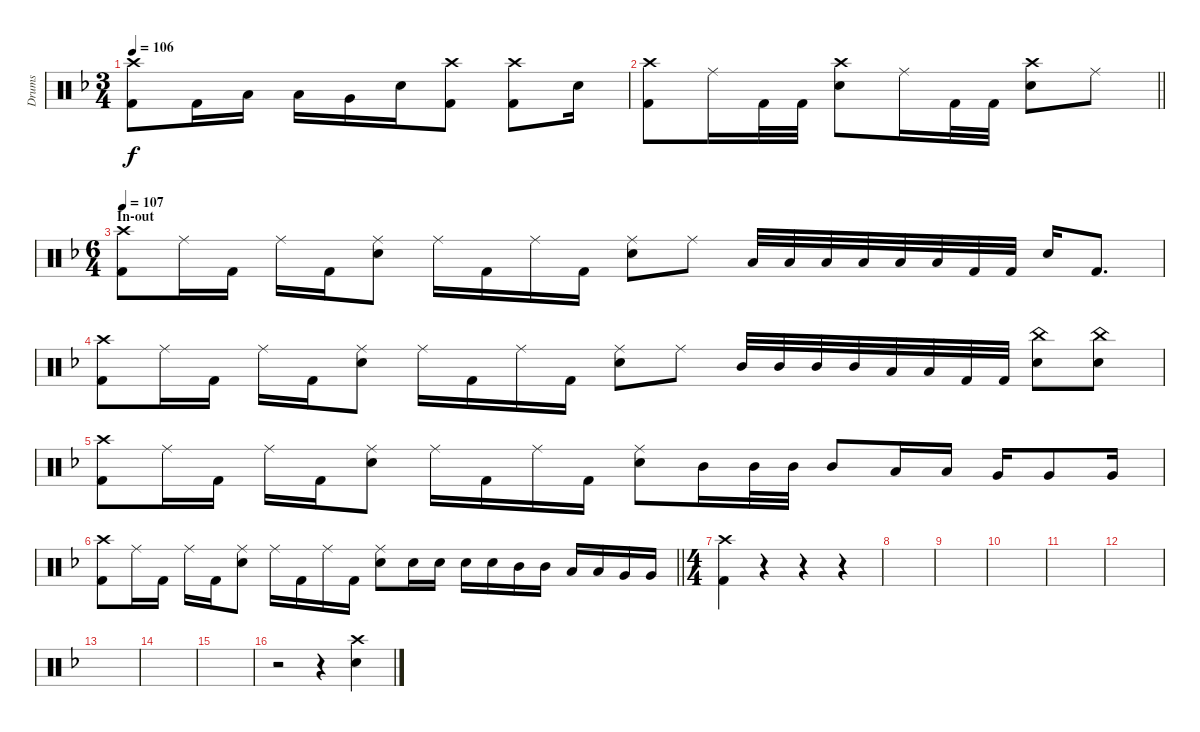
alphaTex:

\track ("Drums" "Drums") {instrument percussion}
\staff {score}
\articulation defaults
\ts (3 4)
\tempo 106
\clef neutral
\ks dminor
("Crash high (hit)" "Kick (hit) 2").8{dy f} "Kick (hit) 2".16 "Low Tom (hit)".16 "Low Tom (hit)".16 "Very Low Tom (hit)".16 "Snare (hit) 2".16 ("Crash high (hit)" "Kick (hit) 2").8 ("Crash high (hit)" "Kick (hit) 2").8 "Snare (hit) 2".16 |
\barLineRight lightlight
("Crash high (hit)" "Kick (hit) 2").8 "Ride (middle)".16 "Kick (hit) 2".32 "Kick (hit) 2".32 ("Crash high (hit)" "Snare (hit) 2").8 "Ride (middle)".16 "Kick (hit) 2".32 "Kick (hit) 2".32 ("Crash high (hit)" "Snare (hit) 2").8 "Ride (middle)".8 |
\ts (6 4)
\section ("" "In-out")
\tempo 107
("Crash high (hit)" "Kick (hit) 2").8 "Ride (middle)".16 "Kick (hit) 2".16 "Ride (middle)".16 "Kick (hit) 2".16 ("Ride (middle)" "Snare (hit) 2").8 "Ride (middle)".16 "Kick (hit) 2".16 "Ride (middle)".16 "Kick (hit) 2".16 ("Ride (middle)" "Snare (hit) 2").8 "Ride (middle)".8 "Low Tom (hit)".32 "Low Tom (hit)".32 "Low Tom (hit)".32 "Low Tom (hit)".32 "Low Tom (hit)".32 "Low Tom (hit)".32 "Kick (hit) 2".32 "Kick (hit) 2".32 "Snare (hit) 2".16 "Kick (hit) 2".8{d} |
("Crash high (hit)" "Kick (hit) 2").8 "Ride (middle)".16 "Kick (hit) 2".16 "Ride (middle)".16 "Kick (hit) 2".16 ("Ride (middle)" "Snare (hit) 2").8 "Ride (middle)".16 "Kick (hit) 2".16 "Ride (middle)".16 "Kick (hit) 2".16 ("Ride (middle)" "Snare (hit) 2").8 "Ride (middle)".8 "Mid Tom (hit)".32 "Mid Tom (hit)".32 "Mid Tom (hit)".32 "Mid Tom (hit)".32 "Low Tom (hit)".32 "Low Tom (hit)".32 "Kick (hit) 2".32 "Kick (hit) 2".32 ("China (hit)" "Snare (hit) 2").8 ("China (hit)" "Snare (hit) 2").8 |
("Crash high (hit)" "Kick (hit) 2").8 "Ride (middle)".16 "Kick (hit) 2".16 "Ride (middle)".16 "Kick (hit) 2".16 ("Ride (middle)" "Snare (hit) 2").8 "Ride (middle)".16 "Kick (hit) 2".16 "Ride (middle)".16 "Kick (hit) 2".16 ("Ride (middle)" "Snare (hit) 2").8 "Mid Tom (hit)".16 "Mid Tom (hit)".32 "Mid Tom (hit)".32 "Mid Tom (hit)".8 "Low Tom (hit)".16 "Low Tom (hit)".16 "Very Low Tom (hit)".16 "Very Low Tom (hit)".8 "Very Low Tom (hit)".16 |
\barLineRight lightlight
("Crash high (hit)" "Kick (hit) 2").8 "Ride (middle)".16 "Kick (hit) 2".16 "Ride (middle)".16 "Kick (hit) 2".16 ("Ride (middle)" "Snare (hit) 2").8 "Ride (middle)".16 "Kick (hit) 2".16 "Ride (middle)".16 "Kick (hit) 2".16 ("Ride (middle)" "Snare (hit) 2").8 "Snare (hit) 2".16 "Snare (hit) 2".16 "Snare (hit) 2".16 "Snare (hit) 2".16 "Mid Tom (hit)".16 "Mid Tom (hit)".16 "Low Tom (hit)".16 "Low Tom (hit)".16 "Very Low Tom (hit)".16 "Very Low Tom (hit)".16 |
\ts (4 4)
("Crash high (hit)" "Kick (hit) 2").4 r.4 r.4 r.4 |
|
|
|
|
|
|
|
|
r.2 r.4 ("Crash high (hit)" "Snare (hit) 2").4
